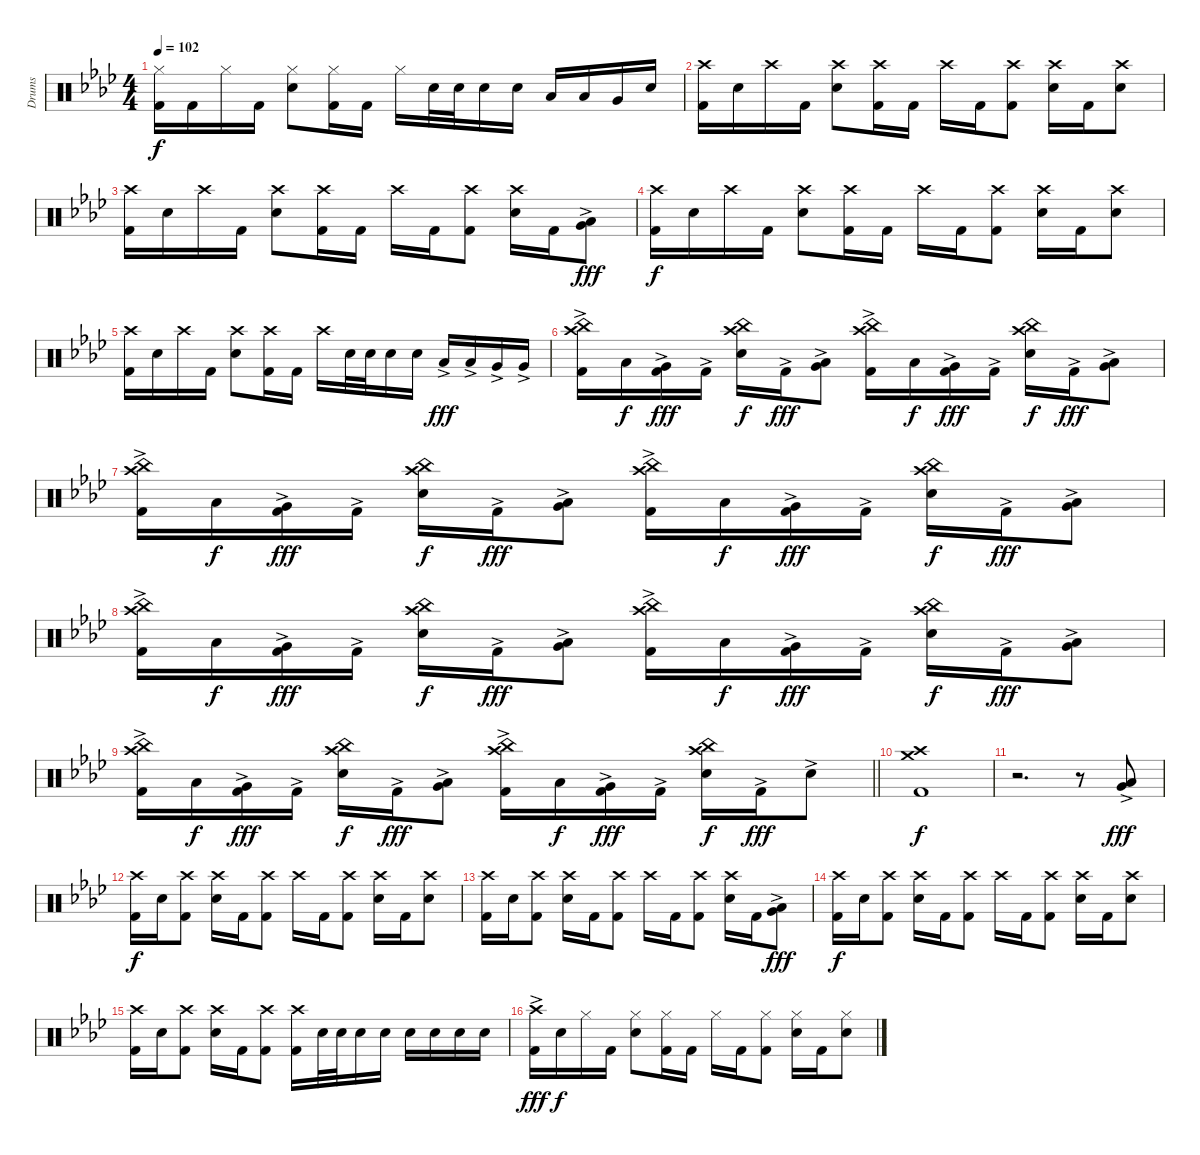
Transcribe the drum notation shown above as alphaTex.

\track ("Drums" "Drums") {instrument percussion}
\staff {score}
\articulation defaults
\ts (4 4)
\tempo 102
\clef neutral
\ks fminor
("Hi-Hat (closed)" "Kick (hit) 2").16{dy f} "Kick (hit) 2".16 "Hi-Hat (closed)".16 "Kick (hit) 2".16 ("Hi-Hat (closed)" "Snare (hit) 2").8 ("Hi-Hat (closed)" "Kick (hit) 2").16 "Kick (hit) 2".16 "Hi-Hat (closed)".16 "Snare (hit) 2".32 "Snare (hit) 2".32 "Snare (hit) 2".16 "Snare (hit) 2".16 "Low Tom (hit)".16 "Low Tom (hit)".16 "Very Low Tom (hit)".16 "Snare (hit) 2".16 |
("Crash high (hit)" "Kick (hit) 2").16 "Snare (hit) 2".16 "Crash high (hit)".16 "Kick (hit) 2".16 ("Crash high (hit)" "Snare (hit) 2").8 ("Crash high (hit)" "Kick (hit) 2").16 "Kick (hit) 2".16 "Crash high (hit)".16 "Kick (hit) 2".16 ("Crash high (hit)" "Kick (hit) 2").8 ("Crash high (hit)" "Snare (hit) 2").16 "Kick (hit) 2".16 ("Crash high (hit)" "Snare (hit) 2").8 |
("Crash high (hit)" "Kick (hit) 2").16 "Snare (hit) 2".16 "Crash high (hit)".16 "Kick (hit) 2".16 ("Crash high (hit)" "Snare (hit) 2").8 ("Crash high (hit)" "Kick (hit) 2").16 "Kick (hit) 2".16 "Crash high (hit)".16 "Kick (hit) 2".16 ("Crash high (hit)" "Kick (hit) 2").8 ("Crash high (hit)" "Snare (hit) 2").16 "Kick (hit) 2".16 ("Low Tom (hit)"{ac} "Very Low Tom (hit)"{ac}).8{dy fff} |
("Crash high (hit)" "Kick (hit) 2").16{dy f} "Snare (hit) 2".16 "Crash high (hit)".16 "Kick (hit) 2".16 ("Crash high (hit)" "Snare (hit) 2").8 ("Crash high (hit)" "Kick (hit) 2").16 "Kick (hit) 2".16 "Crash high (hit)".16 "Kick (hit) 2".16 ("Crash high (hit)" "Kick (hit) 2").8 ("Crash high (hit)" "Snare (hit) 2").16 "Kick (hit) 2".16 ("Crash high (hit)" "Snare (hit) 2").8 |
("Crash high (hit)" "Kick (hit) 2").16 "Snare (hit) 2".16 "Crash high (hit)".16 "Kick (hit) 2".16 ("Crash high (hit)" "Snare (hit) 2").8 ("Crash high (hit)" "Kick (hit) 2").16 "Kick (hit) 2".16 "Crash high (hit)".16 "Snare (hit) 2".32 "Snare (hit) 2".32 "Snare (hit) 2".16 "Snare (hit) 2".16 "Low Tom (hit)"{ac}.16{dy fff} "Low Tom (hit)"{ac}.16 "Very Low Tom (hit)"{ac}.16 "Very Low Tom (hit)"{ac}.16 |
("Crash high (hit)" "China (hit)" "Kick (hit) 2"{ac}).16 "Low Tom (hit)".16{dy f} ("Very Low Tom (hit)" "Kick (hit) 2"{ac}).16{dy fff} "Kick (hit) 2"{ac}.16 ("Crash high (hit)" "China (hit)" "Snare (hit) 2").16{dy f} "Kick (hit) 2"{ac}.16{dy fff} ("Low Tom (hit)" "Very Low Tom (hit)"{ac}).8 ("Crash high (hit)" "China (hit)" "Kick (hit) 2"{ac}).16 "Low Tom (hit)".16{dy f} ("Very Low Tom (hit)" "Kick (hit) 2"{ac}).16{dy fff} "Kick (hit) 2"{ac}.16 ("Crash high (hit)" "China (hit)" "Snare (hit) 2").16{dy f} "Kick (hit) 2"{ac}.16{dy fff} ("Low Tom (hit)" "Very Low Tom (hit)"{ac}).8 |
("Crash high (hit)" "China (hit)" "Kick (hit) 2"{ac}).16 "Low Tom (hit)".16{dy f} ("Very Low Tom (hit)" "Kick (hit) 2"{ac}).16{dy fff} "Kick (hit) 2"{ac}.16 ("Crash high (hit)" "China (hit)" "Snare (hit) 2").16{dy f} "Kick (hit) 2"{ac}.16{dy fff} ("Low Tom (hit)" "Very Low Tom (hit)"{ac}).8 ("Crash high (hit)" "China (hit)" "Kick (hit) 2"{ac}).16 "Low Tom (hit)".16{dy f} ("Very Low Tom (hit)" "Kick (hit) 2"{ac}).16{dy fff} "Kick (hit) 2"{ac}.16 ("Crash high (hit)" "China (hit)" "Snare (hit) 2").16{dy f} "Kick (hit) 2"{ac}.16{dy fff} ("Low Tom (hit)" "Very Low Tom (hit)"{ac}).8 |
("Crash high (hit)" "China (hit)" "Kick (hit) 2"{ac}).16 "Low Tom (hit)".16{dy f} ("Very Low Tom (hit)" "Kick (hit) 2"{ac}).16{dy fff} "Kick (hit) 2"{ac}.16 ("Crash high (hit)" "China (hit)" "Snare (hit) 2").16{dy f} "Kick (hit) 2"{ac}.16{dy fff} ("Low Tom (hit)" "Very Low Tom (hit)"{ac}).8 ("Crash high (hit)" "China (hit)" "Kick (hit) 2"{ac}).16 "Low Tom (hit)".16{dy f} ("Very Low Tom (hit)" "Kick (hit) 2"{ac}).16{dy fff} "Kick (hit) 2"{ac}.16 ("Crash high (hit)" "China (hit)" "Snare (hit) 2").16{dy f} "Kick (hit) 2"{ac}.16{dy fff} ("Low Tom (hit)" "Very Low Tom (hit)"{ac}).8 |
\barLineRight lightlight
("Crash high (hit)" "China (hit)" "Kick (hit) 2"{ac}).16 "Low Tom (hit)".16{dy f} ("Very Low Tom (hit)" "Kick (hit) 2"{ac}).16{dy fff} "Kick (hit) 2"{ac}.16 ("Crash high (hit)" "China (hit)" "Snare (hit) 2").16{dy f} "Kick (hit) 2"{ac}.16{dy fff} ("Low Tom (hit)" "Very Low Tom (hit)"{ac}).8 ("Crash high (hit)" "China (hit)" "Kick (hit) 2"{ac}).16 "Low Tom (hit)".16{dy f} ("Very Low Tom (hit)" "Kick (hit) 2"{ac}).16{dy fff} "Kick (hit) 2"{ac}.16 ("Crash high (hit)" "China (hit)" "Snare (hit) 2").16{dy f} "Kick (hit) 2"{ac}.16{dy fff} "Snare (hit) 2"{ac}.8 |
("Crash high (hit)" "Crash medium (hit)" "Kick (hit) 2").1{dy f} |
r.2{d} r.8 ("Low Tom (hit)"{ac} "Very Low Tom (hit)"{ac}).8{dy fff} |
("Crash high (hit)" "Kick (hit) 2").16{dy f} "Snare (hit) 2".16 ("Crash high (hit)" "Kick (hit) 2").8 ("Crash high (hit)" "Snare (hit) 2").16 "Kick (hit) 2".16 ("Crash high (hit)" "Kick (hit) 2").8 "Crash high (hit)".16 "Kick (hit) 2".16 ("Crash high (hit)" "Kick (hit) 2").8 ("Crash high (hit)" "Snare (hit) 2").16 "Kick (hit) 2".16 ("Crash high (hit)" "Snare (hit) 2").8 |
("Crash high (hit)" "Kick (hit) 2").16 "Snare (hit) 2".16 ("Crash high (hit)" "Kick (hit) 2").8 ("Crash high (hit)" "Snare (hit) 2").16 "Kick (hit) 2".16 ("Crash high (hit)" "Kick (hit) 2").8 "Crash high (hit)".16 "Kick (hit) 2".16 ("Crash high (hit)" "Kick (hit) 2").8 ("Crash high (hit)" "Snare (hit) 2").16 "Kick (hit) 2".16 ("Low Tom (hit)" "Very Low Tom (hit)"{ac}).8{dy fff} |
("Crash high (hit)" "Kick (hit) 2").16{dy f} "Snare (hit) 2".16 ("Crash high (hit)" "Kick (hit) 2").8 ("Crash high (hit)" "Snare (hit) 2").16 "Kick (hit) 2".16 ("Crash high (hit)" "Kick (hit) 2").8 "Crash high (hit)".16 "Kick (hit) 2".16 ("Crash high (hit)" "Kick (hit) 2").8 ("Crash high (hit)" "Snare (hit) 2").16 "Kick (hit) 2".16 ("Crash high (hit)" "Snare (hit) 2").8 |
("Crash high (hit)" "Kick (hit) 2").16 "Snare (hit) 2".16 ("Crash high (hit)" "Kick (hit) 2").8 ("Crash high (hit)" "Snare (hit) 2").16 "Kick (hit) 2".16 ("Crash high (hit)" "Kick (hit) 2").8 ("Crash high (hit)" "Kick (hit) 2").16 "Snare (hit) 2".32 "Snare (hit) 2".32 "Snare (hit) 2".16 "Snare (hit) 2".16 "Snare (hit) 2".16 "Snare (hit) 2".16 "Snare (hit) 2".16 "Snare (hit) 2".16 |
("Crash high (hit)" "Kick (hit) 2"{ac}).16{dy fff} "Snare (hit) 2".16{dy f} "Hi-Hat (closed)".16 "Kick (hit) 2".16 ("Hi-Hat (closed)" "Snare (hit) 2").8 ("Hi-Hat (closed)" "Kick (hit) 2").16 "Kick (hit) 2".16 "Hi-Hat (closed)".16 "Kick (hit) 2".16 ("Hi-Hat (closed)" "Kick (hit) 2").8 ("Hi-Hat (closed)" "Snare (hit) 2").16 "Kick (hit) 2".16 ("Hi-Hat (closed)" "Snare (hit) 2").8
